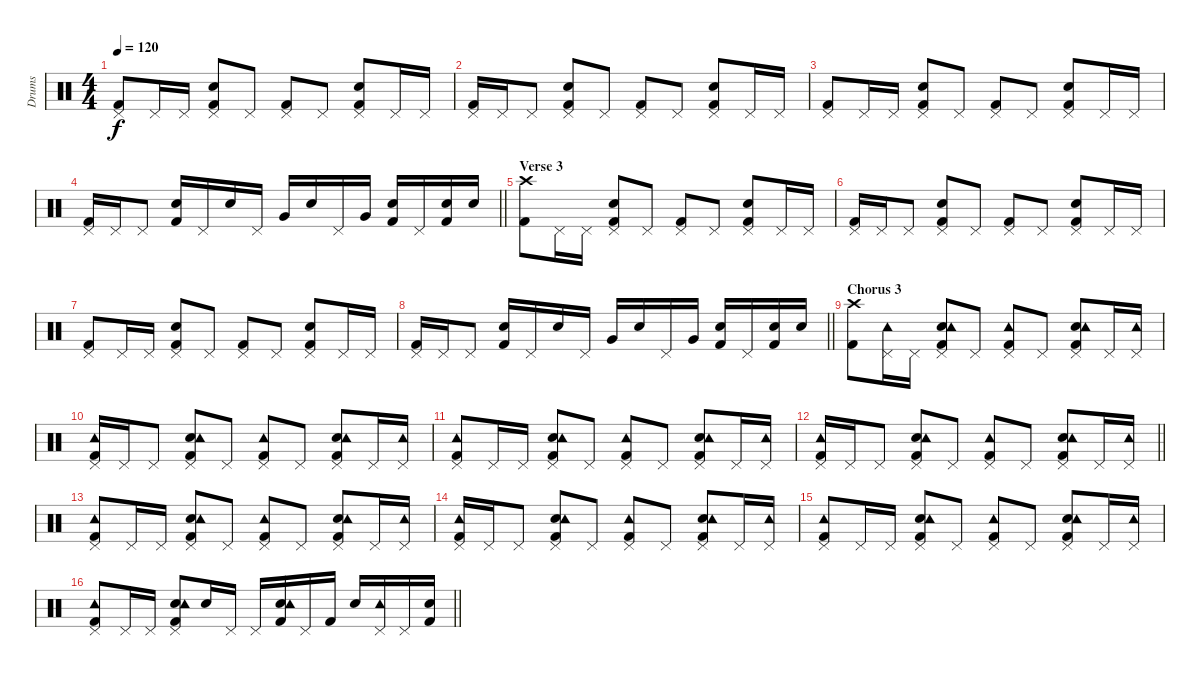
\track ("Drums" "Drums") {instrument percussion}
\staff {score}
\articulation defaults
\ts (4 4)
\tempo 120
\clef neutral
\ks c
("Kick (hit) 2" "Pedal Hi-Hat (hit)").8{dy f} "Pedal Hi-Hat (hit)".16 "Pedal Hi-Hat (hit)".16 ("Kick (hit) 2" "Snare (hit) 2" "Pedal Hi-Hat (hit)").8 "Pedal Hi-Hat (hit)".8 ("Kick (hit) 2" "Pedal Hi-Hat (hit)").8 "Pedal Hi-Hat (hit)".8 ("Kick (hit) 2" "Snare (hit) 2" "Pedal Hi-Hat (hit)").8 "Pedal Hi-Hat (hit)".16 "Pedal Hi-Hat (hit)".16 |
("Kick (hit) 2" "Pedal Hi-Hat (hit)").16 "Pedal Hi-Hat (hit)".16 "Pedal Hi-Hat (hit)".8 ("Kick (hit) 2" "Snare (hit) 2" "Pedal Hi-Hat (hit)").8 "Pedal Hi-Hat (hit)".8 ("Kick (hit) 2" "Pedal Hi-Hat (hit)").8 "Pedal Hi-Hat (hit)".8 ("Kick (hit) 2" "Snare (hit) 2" "Pedal Hi-Hat (hit)").8 "Pedal Hi-Hat (hit)".16 "Pedal Hi-Hat (hit)".16 |
("Kick (hit) 2" "Pedal Hi-Hat (hit)").8 "Pedal Hi-Hat (hit)".16 "Pedal Hi-Hat (hit)".16 ("Kick (hit) 2" "Snare (hit) 2" "Pedal Hi-Hat (hit)").8 "Pedal Hi-Hat (hit)".8 ("Kick (hit) 2" "Pedal Hi-Hat (hit)").8 "Pedal Hi-Hat (hit)".8 ("Kick (hit) 2" "Snare (hit) 2" "Pedal Hi-Hat (hit)").8 "Pedal Hi-Hat (hit)".16 "Pedal Hi-Hat (hit)".16 |
\barLineRight lightlight
("Kick (hit) 2" "Pedal Hi-Hat (hit)").16 "Pedal Hi-Hat (hit)".16 "Pedal Hi-Hat (hit)".8 ("Kick (hit) 2" "Snare (hit) 2").16 "Pedal Hi-Hat (hit)".16 "Snare (hit) 2".16 "Pedal Hi-Hat (hit)".16 "Very Low Tom (hit)".16 "Snare (hit) 2".16 "Pedal Hi-Hat (hit)".16 "Very Low Tom (hit)".16 ("Kick (hit) 2" "Snare (hit) 2").16 "Pedal Hi-Hat (hit)".16 ("Kick (hit) 2" "Snare (hit) 2").16 "Snare (hit) 2".16 |
\section ("" "Verse 3")
("Kick (hit) 2" "Crash high (hit)").8 "Pedal Hi-Hat (hit)".16 "Pedal Hi-Hat (hit)".16 ("Kick (hit) 2" "Snare (hit) 2" "Pedal Hi-Hat (hit)").8 "Pedal Hi-Hat (hit)".8 ("Kick (hit) 2" "Pedal Hi-Hat (hit)").8 "Pedal Hi-Hat (hit)".8 ("Kick (hit) 2" "Snare (hit) 2" "Pedal Hi-Hat (hit)").8 "Pedal Hi-Hat (hit)".16 "Pedal Hi-Hat (hit)".16 |
("Kick (hit) 2" "Pedal Hi-Hat (hit)").16 "Pedal Hi-Hat (hit)".16 "Pedal Hi-Hat (hit)".8 ("Kick (hit) 2" "Snare (hit) 2" "Pedal Hi-Hat (hit)").8 "Pedal Hi-Hat (hit)".8 ("Kick (hit) 2" "Pedal Hi-Hat (hit)").8 "Pedal Hi-Hat (hit)".8 ("Kick (hit) 2" "Snare (hit) 2" "Pedal Hi-Hat (hit)").8 "Pedal Hi-Hat (hit)".16 "Pedal Hi-Hat (hit)".16 |
("Kick (hit) 2" "Pedal Hi-Hat (hit)").8 "Pedal Hi-Hat (hit)".16 "Pedal Hi-Hat (hit)".16 ("Kick (hit) 2" "Snare (hit) 2" "Pedal Hi-Hat (hit)").8 "Pedal Hi-Hat (hit)".8 ("Kick (hit) 2" "Pedal Hi-Hat (hit)").8 "Pedal Hi-Hat (hit)".8 ("Kick (hit) 2" "Snare (hit) 2" "Pedal Hi-Hat (hit)").8 "Pedal Hi-Hat (hit)".16 "Pedal Hi-Hat (hit)".16 |
\barLineRight lightlight
("Kick (hit) 2" "Pedal Hi-Hat (hit)").16 "Pedal Hi-Hat (hit)".16 "Pedal Hi-Hat (hit)".8 ("Kick (hit) 2" "Snare (hit) 2").16 "Pedal Hi-Hat (hit)".16 "Snare (hit) 2".16 "Pedal Hi-Hat (hit)".16 "Very Low Tom (hit)".16 "Snare (hit) 2".16 "Pedal Hi-Hat (hit)".16 "Very Low Tom (hit)".16 ("Kick (hit) 2" "Snare (hit) 2").16 "Pedal Hi-Hat (hit)".16 ("Kick (hit) 2" "Snare (hit) 2").16 "Snare (hit) 2".16 |
\section ("" "Chorus 3")
("Kick (hit) 2" "Crash high (hit)").8 ("Tambourine (hit)" "Pedal Hi-Hat (hit)").16 "Pedal Hi-Hat (hit)".16 ("Kick (hit) 2" "Snare (hit) 2" "Tambourine (hit)" "Pedal Hi-Hat (hit)").8 "Pedal Hi-Hat (hit)".8 ("Kick (hit) 2" "Tambourine (hit)" "Pedal Hi-Hat (hit)").8 "Pedal Hi-Hat (hit)".8 ("Kick (hit) 2" "Snare (hit) 2" "Tambourine (hit)" "Pedal Hi-Hat (hit)").8 "Pedal Hi-Hat (hit)".16 ("Tambourine (hit)" "Pedal Hi-Hat (hit)").16 |
("Kick (hit) 2" "Tambourine (hit)" "Pedal Hi-Hat (hit)").16 "Pedal Hi-Hat (hit)".16 "Pedal Hi-Hat (hit)".8 ("Kick (hit) 2" "Snare (hit) 2" "Tambourine (hit)" "Pedal Hi-Hat (hit)").8 "Pedal Hi-Hat (hit)".8 ("Kick (hit) 2" "Tambourine (hit)" "Pedal Hi-Hat (hit)").8 "Pedal Hi-Hat (hit)".8 ("Kick (hit) 2" "Snare (hit) 2" "Tambourine (hit)" "Pedal Hi-Hat (hit)").8 "Pedal Hi-Hat (hit)".16 ("Tambourine (hit)" "Pedal Hi-Hat (hit)").16 |
("Kick (hit) 2" "Tambourine (hit)" "Pedal Hi-Hat (hit)").8 "Pedal Hi-Hat (hit)".16 "Pedal Hi-Hat (hit)".16 ("Kick (hit) 2" "Snare (hit) 2" "Tambourine (hit)" "Pedal Hi-Hat (hit)").8 "Pedal Hi-Hat (hit)".8 ("Kick (hit) 2" "Tambourine (hit)" "Pedal Hi-Hat (hit)").8 "Pedal Hi-Hat (hit)".8 ("Kick (hit) 2" "Snare (hit) 2" "Tambourine (hit)" "Pedal Hi-Hat (hit)").8 "Pedal Hi-Hat (hit)".16 ("Tambourine (hit)" "Pedal Hi-Hat (hit)").16 |
\barLineRight lightlight
("Kick (hit) 2" "Tambourine (hit)" "Pedal Hi-Hat (hit)").16 "Pedal Hi-Hat (hit)".16 "Pedal Hi-Hat (hit)".8 ("Kick (hit) 2" "Snare (hit) 2" "Tambourine (hit)" "Pedal Hi-Hat (hit)").8 "Pedal Hi-Hat (hit)".8 ("Kick (hit) 2" "Tambourine (hit)" "Pedal Hi-Hat (hit)").8 "Pedal Hi-Hat (hit)".8 ("Kick (hit) 2" "Snare (hit) 2" "Tambourine (hit)" "Pedal Hi-Hat (hit)").8 "Pedal Hi-Hat (hit)".16 ("Tambourine (hit)" "Pedal Hi-Hat (hit)").16 |
("Kick (hit) 2" "Tambourine (hit)" "Pedal Hi-Hat (hit)").8 "Pedal Hi-Hat (hit)".16 "Pedal Hi-Hat (hit)".16 ("Kick (hit) 2" "Snare (hit) 2" "Tambourine (hit)" "Pedal Hi-Hat (hit)").8 "Pedal Hi-Hat (hit)".8 ("Kick (hit) 2" "Tambourine (hit)" "Pedal Hi-Hat (hit)").8 "Pedal Hi-Hat (hit)".8 ("Kick (hit) 2" "Snare (hit) 2" "Tambourine (hit)" "Pedal Hi-Hat (hit)").8 "Pedal Hi-Hat (hit)".16 ("Tambourine (hit)" "Pedal Hi-Hat (hit)").16 |
("Kick (hit) 2" "Tambourine (hit)" "Pedal Hi-Hat (hit)").16 "Pedal Hi-Hat (hit)".16 "Pedal Hi-Hat (hit)".8 ("Kick (hit) 2" "Snare (hit) 2" "Tambourine (hit)" "Pedal Hi-Hat (hit)").8 "Pedal Hi-Hat (hit)".8 ("Kick (hit) 2" "Tambourine (hit)" "Pedal Hi-Hat (hit)").8 "Pedal Hi-Hat (hit)".8 ("Kick (hit) 2" "Snare (hit) 2" "Tambourine (hit)" "Pedal Hi-Hat (hit)").8 "Pedal Hi-Hat (hit)".16 ("Tambourine (hit)" "Pedal Hi-Hat (hit)").16 |
("Kick (hit) 2" "Tambourine (hit)" "Pedal Hi-Hat (hit)").8 "Pedal Hi-Hat (hit)".16 "Pedal Hi-Hat (hit)".16 ("Kick (hit) 2" "Snare (hit) 2" "Tambourine (hit)" "Pedal Hi-Hat (hit)").8 "Pedal Hi-Hat (hit)".8 ("Kick (hit) 2" "Tambourine (hit)" "Pedal Hi-Hat (hit)").8 "Pedal Hi-Hat (hit)".8 ("Kick (hit) 2" "Snare (hit) 2" "Tambourine (hit)" "Pedal Hi-Hat (hit)").8 "Pedal Hi-Hat (hit)".16 ("Tambourine (hit)" "Pedal Hi-Hat (hit)").16 |
\barLineRight lightlight
("Kick (hit) 2" "Tambourine (hit)" "Pedal Hi-Hat (hit)").8 "Pedal Hi-Hat (hit)".16 "Pedal Hi-Hat (hit)".16 ("Kick (hit) 2" "Snare (hit) 2" "Tambourine (hit)" "Pedal Hi-Hat (hit)").8 "Snare (hit) 2".16 "Pedal Hi-Hat (hit)".16 "Pedal Hi-Hat (hit)".16 ("Kick (hit) 2" "Snare (hit) 2" "Tambourine (hit)").16 "Pedal Hi-Hat (hit)".16 "Kick (hit) 2".16 "Snare (hit) 2".16 ("Tambourine (hit)" "Pedal Hi-Hat (hit)").16 "Pedal Hi-Hat (hit)".16 ("Kick (hit) 2" "Snare (hit) 2").16
